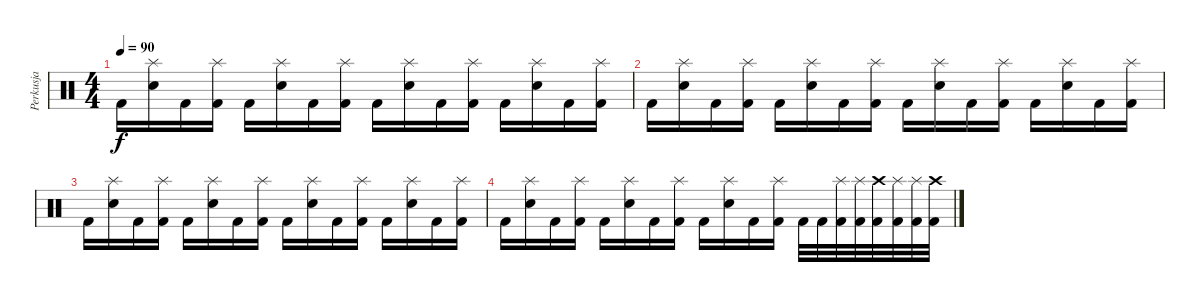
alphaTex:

\track ("Perkusja" "Perkusja") {instrument percussion}
\staff {score}
\articulation defaults
\ts (4 4)
\tempo 90
\clef neutral
\ks c "Kick (hit) 2".16{dy f}
("Splash (hit)" "Snare (hit) 2").16 "Kick (hit) 2".16 ("Splash (hit)" "Kick (hit) 2").16 "Kick (hit) 2".16 ("Splash (hit)" "Snare (hit) 2").16 "Kick (hit) 2".16 ("Splash (hit)" "Kick (hit) 2").16 "Kick (hit) 2".16 ("Splash (hit)" "Snare (hit) 2").16 "Kick (hit) 2".16 ("Splash (hit)" "Kick (hit) 2").16 "Kick (hit) 2".16 ("Splash (hit)" "Snare (hit) 2").16 "Kick (hit) 2".16 ("Splash (hit)" "Kick (hit) 2").16 |
"Kick (hit) 2".16 ("Splash (hit)" "Snare (hit) 2").16 "Kick (hit) 2".16 ("Splash (hit)" "Kick (hit) 2").16 "Kick (hit) 2".16 ("Splash (hit)" "Snare (hit) 2").16 "Kick (hit) 2".16 ("Splash (hit)" "Kick (hit) 2").16 "Kick (hit) 2".16 ("Splash (hit)" "Snare (hit) 2").16 "Kick (hit) 2".16 ("Splash (hit)" "Kick (hit) 2").16 "Kick (hit) 2".16 ("Splash (hit)" "Snare (hit) 2").16 "Kick (hit) 2".16 ("Splash (hit)" "Kick (hit) 2").16 |
"Kick (hit) 2".16 ("Splash (hit)" "Snare (hit) 2").16 "Kick (hit) 2".16 ("Splash (hit)" "Kick (hit) 2").16 "Kick (hit) 2".16 ("Splash (hit)" "Snare (hit) 2").16 "Kick (hit) 2".16 ("Splash (hit)" "Kick (hit) 2").16 "Kick (hit) 2".16 ("Splash (hit)" "Snare (hit) 2").16 "Kick (hit) 2".16 ("Splash (hit)" "Kick (hit) 2").16 "Kick (hit) 2".16 ("Splash (hit)" "Snare (hit) 2").16 "Kick (hit) 2".16 ("Splash (hit)" "Kick (hit) 2").16 |
"Kick (hit) 2".16 ("Splash (hit)" "Snare (hit) 2").16 "Kick (hit) 2".16 ("Splash (hit)" "Kick (hit) 2").16 "Kick (hit) 2".16 ("Splash (hit)" "Snare (hit) 2").16 "Kick (hit) 2".16 ("Splash (hit)" "Kick (hit) 2").16 "Kick (hit) 2".16 ("Splash (hit)" "Snare (hit) 2").16 "Kick (hit) 2".16 ("Splash (hit)" "Kick (hit) 2").16 "Kick (hit) 2".32 "Kick (hit) 2".32 ("Splash (hit)" "Kick (hit) 2").32 ("Splash (hit)" "Kick (hit) 2").32 ("Crash high (hit)" "Kick (hit) 2").32 ("Splash (hit)" "Kick (hit) 2").32 ("Splash (hit)" "Kick (hit) 2").32 ("Crash high (hit)" "Kick (hit) 2").32
